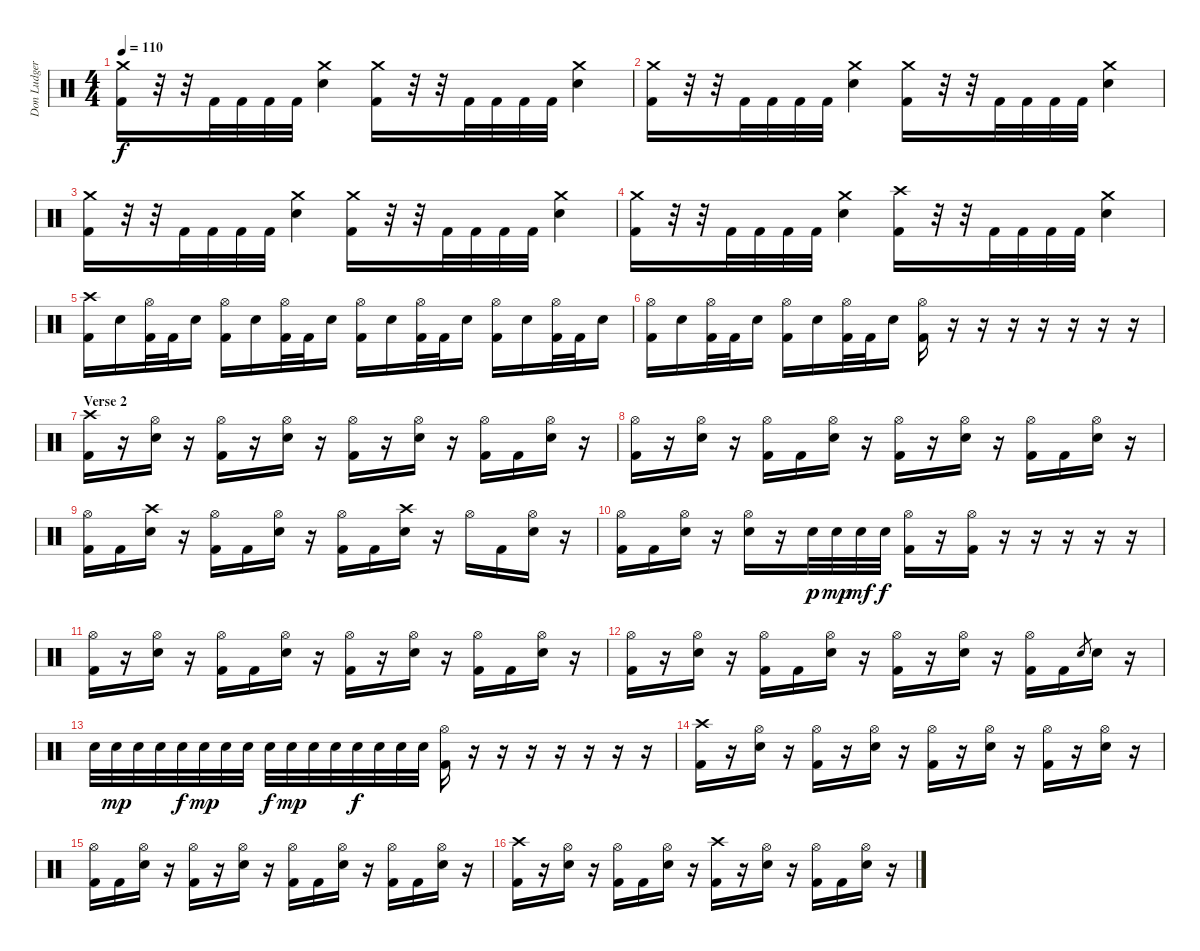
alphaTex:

\track ("Don Ludger" "Don Ludger") {instrument percussion}
\staff {score}
\articulation defaults
\ts (4 4)
\tempo 110
\clef neutral
\ks c
("Crash medium (hit)" "Kick (hit) 2").16{dy f} r.32 r.32 "Kick (hit) 2".32 "Kick (hit) 2".32 "Kick (hit) 2".32 "Kick (hit) 2".32 ("Crash medium (hit)" "Electric Snare (hit)").4 ("Crash medium (hit)" "Kick (hit) 2").16 r.32 r.32 "Kick (hit) 2".32 "Kick (hit) 2".32 "Kick (hit) 2".32 "Kick (hit) 2".32 ("Crash medium (hit)" "Electric Snare (hit)").4 |
("Crash medium (hit)" "Kick (hit) 2").16 r.32 r.32 "Kick (hit) 2".32 "Kick (hit) 2".32 "Kick (hit) 2".32 "Kick (hit) 2".32 ("Crash medium (hit)" "Electric Snare (hit)").4 ("Crash medium (hit)" "Kick (hit) 2").16 r.32 r.32 "Kick (hit) 2".32 "Kick (hit) 2".32 "Kick (hit) 2".32 "Kick (hit) 2".32 ("Crash medium (hit)" "Electric Snare (hit)").4 |
("Crash medium (hit)" "Kick (hit) 2").16 r.32 r.32 "Kick (hit) 2".32 "Kick (hit) 2".32 "Kick (hit) 2".32 "Kick (hit) 2".32 ("Crash medium (hit)" "Electric Snare (hit)").4 ("Crash medium (hit)" "Kick (hit) 2").16 r.32 r.32 "Kick (hit) 2".32 "Kick (hit) 2".32 "Kick (hit) 2".32 "Kick (hit) 2".32 ("Crash medium (hit)" "Electric Snare (hit)").4 |
("Crash medium (hit)" "Kick (hit) 2").16 r.32 r.32 "Kick (hit) 2".32 "Kick (hit) 2".32 "Kick (hit) 2".32 "Kick (hit) 2".32 ("Crash medium (hit)" "Electric Snare (hit)").4 ("Crash high (hit)" "Kick (hit) 2").16 r.32 r.32 "Kick (hit) 2".32 "Kick (hit) 2".32 "Kick (hit) 2".32 "Kick (hit) 2".32 ("Crash medium (hit)" "Electric Snare (hit)").4 |
("Crash high (hit)" "Kick (hit) 2").16 "Electric Snare (hit)".16 ("Hi-Hat (open)" "Kick (hit) 2").32 "Kick (hit) 2".32 "Electric Snare (hit)".16 ("Hi-Hat (open)" "Kick (hit) 2").16 "Electric Snare (hit)".16 ("Hi-Hat (open)" "Kick (hit) 2").32 "Kick (hit) 2".32 "Electric Snare (hit)".16 ("Hi-Hat (open)" "Kick (hit) 2").16 "Electric Snare (hit)".16 ("Hi-Hat (open)" "Kick (hit) 2").32 "Kick (hit) 2".32 "Electric Snare (hit)".16 ("Hi-Hat (open)" "Kick (hit) 2").16 "Electric Snare (hit)".16 ("Hi-Hat (open)" "Kick (hit) 2").32 "Kick (hit) 2".32 "Electric Snare (hit)".16 |
("Hi-Hat (open)" "Kick (hit) 2").16 "Electric Snare (hit)".16 ("Hi-Hat (open)" "Kick (hit) 2").32 "Kick (hit) 2".32 "Electric Snare (hit)".16 ("Hi-Hat (open)" "Kick (hit) 2").16 "Electric Snare (hit)".16 ("Hi-Hat (open)" "Kick (hit) 2").32 "Kick (hit) 2".32 "Electric Snare (hit)".16 ("Hi-Hat (open)" "Kick (hit) 2").16 r.16 r.16 r.16 r.16 r.16 r.16 r.16 |
\section ("" "Verse 2")
("Crash high (hit)" "Kick (hit) 2").16 r.16 ("Hi-Hat (open)" "Electric Snare (hit)").16 r.16 ("Hi-Hat (open)" "Kick (hit) 2").16 r.16 ("Hi-Hat (open)" "Electric Snare (hit)").16 r.16 ("Hi-Hat (open)" "Kick (hit) 2").16 r.16 ("Hi-Hat (open)" "Electric Snare (hit)").16 r.16 ("Hi-Hat (open)" "Kick (hit) 2").16 "Kick (hit) 2".16 ("Hi-Hat (open)" "Electric Snare (hit)").16 r.16 |
("Hi-Hat (open)" "Kick (hit) 2").16 r.16 ("Hi-Hat (open)" "Electric Snare (hit)").16 r.16 ("Hi-Hat (open)" "Kick (hit) 2").16 "Kick (hit) 2".16 ("Hi-Hat (open)" "Electric Snare (hit)").16 r.16 ("Hi-Hat (open)" "Kick (hit) 2").16 r.16 ("Hi-Hat (open)" "Electric Snare (hit)").16 r.16 ("Hi-Hat (open)" "Kick (hit) 2").16 "Kick (hit) 2".16 ("Hi-Hat (open)" "Electric Snare (hit)").16 r.16 |
("Hi-Hat (open)" "Kick (hit) 2").16 "Kick (hit) 2".16 ("Crash high (hit)" "Electric Snare (hit)").16 r.16 ("Hi-Hat (open)" "Kick (hit) 2").16 "Kick (hit) 2".16 ("Hi-Hat (open)" "Electric Snare (hit)").16 r.16 ("Hi-Hat (open)" "Kick (hit) 2").16 "Kick (hit) 2".16 ("Crash high (hit)" "Electric Snare (hit)").16 r.16 "Hi-Hat (open)".16 "Kick (hit) 2".16 ("Hi-Hat (open)" "Electric Snare (hit)").16 r.16 |
("Hi-Hat (open)" "Kick (hit) 2").16 "Kick (hit) 2".16 ("Hi-Hat (open)" "Electric Snare (hit)").16 r.16 ("Hi-Hat (open)" "Electric Snare (hit)").16 r.16 "Electric Snare (hit)".32{dy p} "Electric Snare (hit)".32{dy mp} "Electric Snare (hit)".32{dy mf} "Electric Snare (hit)".32{dy f} ("Hi-Hat (open)" "Kick (hit) 2").16 r.16 ("Hi-Hat (open)" "Kick (hit) 2").16 r.16 r.16 r.16 r.16 r.16 |
("Hi-Hat (open)" "Kick (hit) 2").16 r.16 ("Hi-Hat (open)" "Electric Snare (hit)").16 r.16 ("Hi-Hat (open)" "Kick (hit) 2").16 "Kick (hit) 2".16 ("Hi-Hat (open)" "Electric Snare (hit)").16 r.16 ("Hi-Hat (open)" "Kick (hit) 2").16 r.16 ("Hi-Hat (open)" "Electric Snare (hit)").16 r.16 ("Hi-Hat (open)" "Kick (hit) 2").16 "Kick (hit) 2".16 ("Hi-Hat (open)" "Electric Snare (hit)").16 r.16 |
("Hi-Hat (open)" "Kick (hit) 2").16 r.16 ("Hi-Hat (open)" "Electric Snare (hit)").16 r.16 ("Hi-Hat (open)" "Kick (hit) 2").16 "Kick (hit) 2".16 ("Hi-Hat (open)" "Electric Snare (hit)").16 r.16 ("Hi-Hat (open)" "Kick (hit) 2").16 r.16 ("Hi-Hat (open)" "Electric Snare (hit)").16 r.16 ("Hi-Hat (open)" "Kick (hit) 2").16 "Kick (hit) 2".16 "Electric Snare (hit)".8{gr} "Electric Snare (hit)".16 r.16 |
"Electric Snare (hit)".32 "Electric Snare (hit)".32{dy mp} "Electric Snare (hit)".32 "Electric Snare (hit)".32 "Electric Snare (hit)".32{dy f} "Electric Snare (hit)".32{dy mp} "Electric Snare (hit)".32 "Electric Snare (hit)".32 "Electric Snare (hit)".32{dy f} "Electric Snare (hit)".32{dy mp} "Electric Snare (hit)".32 "Electric Snare (hit)".32 "Electric Snare (hit)".32{dy f} "Electric Snare (hit)".32 "Electric Snare (hit)".32 "Electric Snare (hit)".32 ("Hi-Hat (open)" "Kick (hit) 2").16 r.16 r.16 r.16 r.16 r.16 r.16 r.16 |
("Crash high (hit)" "Kick (hit) 2").16 r.16 ("Hi-Hat (open)" "Electric Snare (hit)").16 r.16 ("Hi-Hat (open)" "Kick (hit) 2").16 r.16 ("Hi-Hat (open)" "Electric Snare (hit)").16 r.16 ("Hi-Hat (open)" "Kick (hit) 2").16 r.16 ("Hi-Hat (open)" "Electric Snare (hit)").16 r.16 ("Hi-Hat (open)" "Kick (hit) 2").16 r.16 ("Hi-Hat (open)" "Electric Snare (hit)").16 r.16 |
("Hi-Hat (open)" "Kick (hit) 2").16 "Kick (hit) 2".16 ("Hi-Hat (open)" "Electric Snare (hit)").16 r.16 ("Hi-Hat (open)" "Kick (hit) 2").16 r.16 ("Hi-Hat (open)" "Electric Snare (hit)").16 r.16 ("Hi-Hat (open)" "Kick (hit) 2").16 "Kick (hit) 2".16 ("Hi-Hat (open)" "Electric Snare (hit)").16 r.16 ("Hi-Hat (open)" "Kick (hit) 2").16 "Kick (hit) 2".16 ("Hi-Hat (open)" "Electric Snare (hit)").16 r.16 |
("Crash high (hit)" "Kick (hit) 2").16 r.16 ("Hi-Hat (open)" "Electric Snare (hit)").16 r.16 ("Hi-Hat (open)" "Kick (hit) 2").16 "Kick (hit) 2".16 ("Hi-Hat (open)" "Electric Snare (hit)").16 r.16 ("Crash high (hit)" "Kick (hit) 2").16 r.16 ("Hi-Hat (open)" "Electric Snare (hit)").16 r.16 ("Hi-Hat (open)" "Kick (hit) 2").16 "Kick (hit) 2".16 ("Hi-Hat (open)" "Electric Snare (hit)").16 r.16
